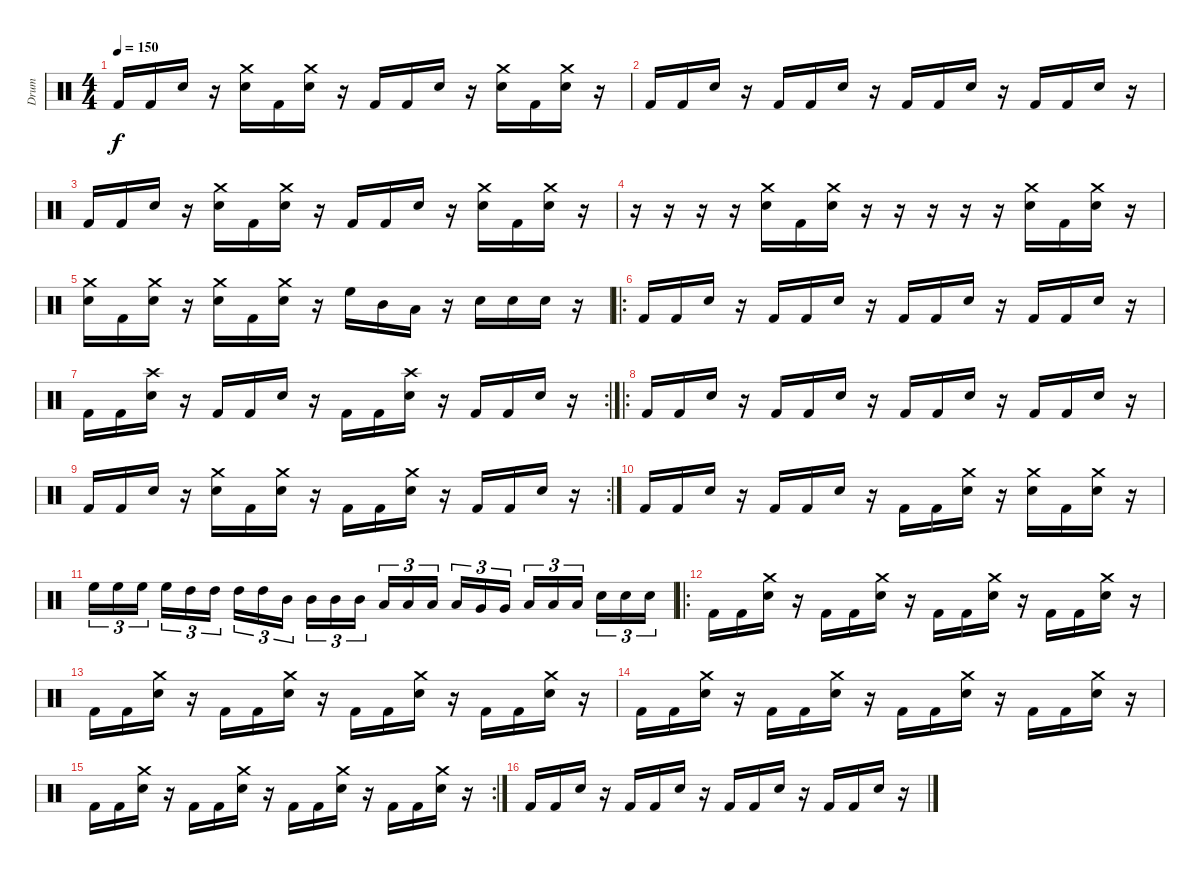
\track ("Drum" "Drum") {instrument percussion}
\staff {score}
\articulation defaults
\ts (4 4)
\tempo 150
\clef neutral
\ks c "Kick (hit) 2".16{dy f} "Kick (hit) 2".16 "Snare (hit) 2".16
r.16 ("Electric Snare (hit)" "Crash medium (hit)").16 "Kick (hit) 2".16 ("Electric Snare (hit)" "Crash medium (hit)").16 r.16 "Kick (hit) 2".16 "Kick (hit) 2".16 "Snare (hit) 2".16 r.16 ("Electric Snare (hit)" "Crash medium (hit)").16 "Kick (hit) 2".16 ("Electric Snare (hit)" "Crash medium (hit)").16 r.16 |
"Kick (hit) 2".16 "Kick (hit) 2".16 "Snare (hit) 2".16 r.16 "Kick (hit) 2".16 "Kick (hit) 2".16 "Snare (hit) 2".16 r.16 "Kick (hit) 2".16 "Kick (hit) 2".16 "Snare (hit) 2".16 r.16 "Kick (hit) 2".16 "Kick (hit) 2".16 "Snare (hit) 2".16 r.16 |
"Kick (hit) 2".16 "Kick (hit) 2".16 "Snare (hit) 2".16 r.16 ("Electric Snare (hit)" "Crash medium (hit)").16 "Kick (hit) 2".16 ("Electric Snare (hit)" "Crash medium (hit)").16 r.16 "Kick (hit) 2".16 "Kick (hit) 2".16 "Snare (hit) 2".16 r.16 ("Electric Snare (hit)" "Crash medium (hit)").16 "Kick (hit) 2".16 ("Electric Snare (hit)" "Crash medium (hit)").16 r.16 |
r.16 r.16 r.16 r.16 ("Electric Snare (hit)" "Crash medium (hit)").16 "Kick (hit) 2".16 ("Electric Snare (hit)" "Crash medium (hit)").16 r.16 r.16 r.16 r.16 r.16 ("Electric Snare (hit)" "Crash medium (hit)").16 "Kick (hit) 2".16 ("Electric Snare (hit)" "Crash medium (hit)").16 r.16 |
("Electric Snare (hit)" "Crash medium (hit)").16 "Kick (hit) 2".16 ("Electric Snare (hit)" "Crash medium (hit)").16 r.16 ("Electric Snare (hit)" "Crash medium (hit)").16 "Kick (hit) 2".16 ("Electric Snare (hit)" "Crash medium (hit)").16 r.16 "High Floor Tom (hit)".16 "Mid Tom (hit)".16 "Low Tom (hit)".16 r.16 "Electric Snare (hit)".16 "Electric Snare (hit)".16 "Electric Snare (hit)".16 r.16 |
\ro "Kick (hit) 2".16 "Kick (hit) 2".16 "Snare (hit) 2".16
r.16 "Kick (hit) 2".16 "Kick (hit) 2".16 "Snare (hit) 2".16 r.16 "Kick (hit) 2".16 "Kick (hit) 2".16 "Snare (hit) 2".16 r.16 "Kick (hit) 2".16 "Kick (hit) 2".16 "Snare (hit) 2".16 r.16 |
\rc 2 "Kick (hit) 2".16 "Kick (hit) 2".16
("Electric Snare (hit)" "Crash high (hit)").16 r.16 "Kick (hit) 2".16 "Kick (hit) 2".16 "Snare (hit) 2".16 r.16 "Kick (hit) 2".16 "Kick (hit) 2".16 ("Electric Snare (hit)" "Crash high (hit)").16 r.16 "Kick (hit) 2".16 "Kick (hit) 2".16 "Snare (hit) 2".16 r.16 |
\ro "Kick (hit) 2".16 "Kick (hit) 2".16 "Snare (hit) 2".16
r.16 "Kick (hit) 2".16 "Kick (hit) 2".16 "Snare (hit) 2".16 r.16 "Kick (hit) 2".16 "Kick (hit) 2".16 "Snare (hit) 2".16 r.16 "Kick (hit) 2".16 "Kick (hit) 2".16 "Snare (hit) 2".16 r.16 |
\rc 2 "Kick (hit) 2".16 "Kick (hit) 2".16 "Snare (hit) 2".16
r.16 ("Electric Snare (hit)" "Crash medium (hit)").16 "Kick (hit) 2".16 ("Electric Snare (hit)" "Crash medium (hit)").16 r.16 "Kick (hit) 2".16 "Kick (hit) 2".16 ("Electric Snare (hit)" "Crash medium (hit)").16 r.16 "Kick (hit) 2".16 "Kick (hit) 2".16 "Snare (hit) 2".16 r.16 |
"Kick (hit) 2".16 "Kick (hit) 2".16 "Snare (hit) 2".16 r.16 "Kick (hit) 2".16 "Kick (hit) 2".16 "Snare (hit) 2".16 r.16 "Kick (hit) 2".16 "Kick (hit) 2".16 ("Electric Snare (hit)" "Crash medium (hit)").16 r.16 ("Crash medium (hit)" "Electric Snare (hit)").16 "Kick (hit) 2".16 ("Electric Snare (hit)" "Crash medium (hit)").16 r.16 |
"High Floor Tom (hit)".16{tu (3 2)} "High Floor Tom (hit)".16{tu (3 2)} "High Floor Tom (hit)".16{tu (3 2)} "High Floor Tom (hit)".16{tu (3 2)} "High Tom (hit)".16{tu (3 2)} "High Tom (hit)".16{tu (3 2)} "High Tom (hit)".16{tu (3 2)} "High Tom (hit)".16{tu (3 2)} "Mid Tom (hit)".16{tu (3 2)} "Mid Tom (hit)".16{tu (3 2)} "Mid Tom (hit)".16{tu (3 2)} "Mid Tom (hit)".16{tu (3 2)} "Low Tom (hit)".16{tu (3 2)} "Low Tom (hit)".16{tu (3 2)} "Low Tom (hit)".16{tu (3 2)} "Low Tom (hit)".16{tu (3 2)} "Very Low Tom (hit)".16{tu (3 2)} "Very Low Tom (hit)".16{tu (3 2)} "Low Floor Tom (hit)".16{tu (3 2)} "Low Floor Tom (hit)".16{tu (3 2)} "Low Floor Tom (hit)".16{tu (3 2)} "Electric Snare (hit)".16{tu (3 2)} "Electric Snare (hit)".16{tu (3 2)} "Electric Snare (hit)".16{tu (3 2)} |
\ro "Kick (hit) 2".16 "Kick (hit) 2".16
("Crash medium (hit)" "Electric Snare (hit)").16 r.16 "Kick (hit) 2".16 "Kick (hit) 2".16 ("Crash medium (hit)" "Electric Snare (hit)").16 r.16 "Kick (hit) 2".16 "Kick (hit) 2".16 ("Crash medium (hit)" "Electric Snare (hit)").16 r.16 "Kick (hit) 2".16 "Kick (hit) 2".16 ("Crash medium (hit)" "Electric Snare (hit)").16 r.16 |
"Kick (hit) 2".16 "Kick (hit) 2".16 ("Crash medium (hit)" "Electric Snare (hit)").16 r.16 "Kick (hit) 2".16 "Kick (hit) 2".16 ("Crash medium (hit)" "Electric Snare (hit)").16 r.16 "Kick (hit) 2".16 "Kick (hit) 2".16 ("Crash medium (hit)" "Electric Snare (hit)").16 r.16 "Kick (hit) 2".16 "Kick (hit) 2".16 ("Crash medium (hit)" "Electric Snare (hit)").16 r.16 |
"Kick (hit) 2".16 "Kick (hit) 2".16 ("Crash medium (hit)" "Electric Snare (hit)").16 r.16 "Kick (hit) 2".16 "Kick (hit) 2".16 ("Crash medium (hit)" "Electric Snare (hit)").16 r.16 "Kick (hit) 2".16 "Kick (hit) 2".16 ("Crash medium (hit)" "Electric Snare (hit)").16 r.16 "Kick (hit) 2".16 "Kick (hit) 2".16 ("Crash medium (hit)" "Electric Snare (hit)").16 r.16 |
\rc 2 "Kick (hit) 2".16 "Kick (hit) 2".16
("Crash medium (hit)" "Electric Snare (hit)").16 r.16 "Kick (hit) 2".16 "Kick (hit) 2".16 ("Crash medium (hit)" "Electric Snare (hit)").16 r.16 "Kick (hit) 2".16 "Kick (hit) 2".16 ("Crash medium (hit)" "Electric Snare (hit)").16 r.16 "Kick (hit) 2".16 "Kick (hit) 2".16 ("Crash medium (hit)" "Electric Snare (hit)").16 r.16 |
"Kick (hit) 2".16 "Kick (hit) 2".16 "Snare (hit) 2".16 r.16 "Kick (hit) 2".16 "Kick (hit) 2".16 "Snare (hit) 2".16 r.16 "Kick (hit) 2".16 "Kick (hit) 2".16 "Snare (hit) 2".16 r.16 "Kick (hit) 2".16 "Kick (hit) 2".16 "Snare (hit) 2".16 r.16
